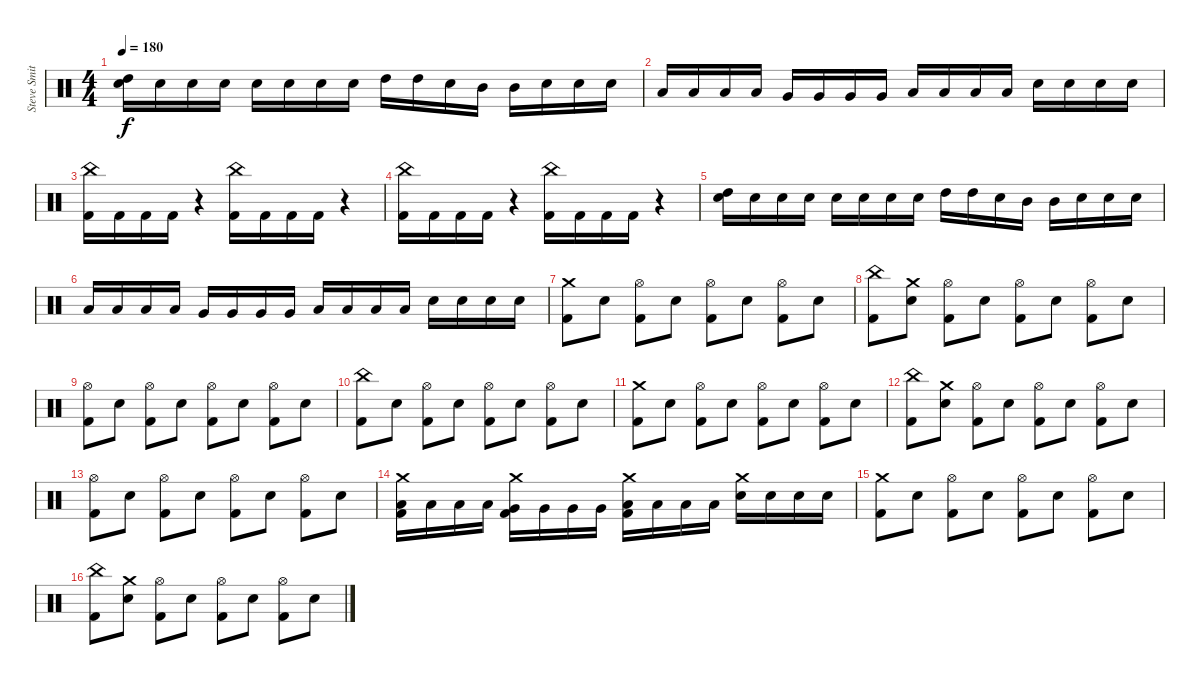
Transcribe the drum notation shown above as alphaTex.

\track ("Steve Smith" "Steve Smit") {instrument percussion}
\staff {score}
\articulation defaults
\ts (4 4)
\tempo 180
\clef neutral
\ks c
("High Tom (hit)" "Electric Snare (hit)").16{dy f} "Electric Snare (hit)".16 "Electric Snare (hit)".16 "Electric Snare (hit)".16 "Electric Snare (hit)".16 "Electric Snare (hit)".16 "Electric Snare (hit)".16 "Electric Snare (hit)".16 "High Tom (hit)".16 "High Tom (hit)".16 "Electric Snare (hit)".16 "Mid Tom (hit)".16 "Mid Tom (hit)".16 "Electric Snare (hit)".16 "Electric Snare (hit)".16 "Electric Snare (hit)".16 |
"Low Tom (hit)".16 "Low Tom (hit)".16 "Low Tom (hit)".16 "Low Tom (hit)".16 "Very Low Tom (hit)".16 "Very Low Tom (hit)".16 "Very Low Tom (hit)".16 "Very Low Tom (hit)".16 "Low Floor Tom (hit)".16 "Low Floor Tom (hit)".16 "Low Floor Tom (hit)".16 "Low Floor Tom (hit)".16 "Electric Snare (hit)".16 "Electric Snare (hit)".16 "Electric Snare (hit)".16 "Electric Snare (hit)".16 |
("China (hit)" "Kick (hit) 2").16 "Kick (hit) 2".16 "Kick (hit) 2".16 "Kick (hit) 2".16 r.4 ("China (hit)" "Kick (hit) 2").16 "Kick (hit) 2".16 "Kick (hit) 2".16 "Kick (hit) 2".16 r.4 |
("China (hit)" "Kick (hit) 2").16 "Kick (hit) 2".16 "Kick (hit) 2".16 "Kick (hit) 2".16 r.4 ("China (hit)" "Kick (hit) 2").16 "Kick (hit) 2".16 "Kick (hit) 2".16 "Kick (hit) 2".16 r.4 |
("High Tom (hit)" "Electric Snare (hit)").16 "Electric Snare (hit)".16 "Electric Snare (hit)".16 "Electric Snare (hit)".16 "Electric Snare (hit)".16 "Electric Snare (hit)".16 "Electric Snare (hit)".16 "Electric Snare (hit)".16 "High Tom (hit)".16 "High Tom (hit)".16 "Electric Snare (hit)".16 "Mid Tom (hit)".16 "Mid Tom (hit)".16 "Electric Snare (hit)".16 "Electric Snare (hit)".16 "Electric Snare (hit)".16 |
"Low Tom (hit)".16 "Low Tom (hit)".16 "Low Tom (hit)".16 "Low Tom (hit)".16 "Very Low Tom (hit)".16 "Very Low Tom (hit)".16 "Very Low Tom (hit)".16 "Very Low Tom (hit)".16 "Low Floor Tom (hit)".16 "Low Floor Tom (hit)".16 "Low Floor Tom (hit)".16 "Low Floor Tom (hit)".16 "Electric Snare (hit)".16 "Electric Snare (hit)".16 "Electric Snare (hit)".16 "Electric Snare (hit)".16 |
("Crash medium (hit)" "Kick (hit) 2").8 "Electric Snare (hit)".8 ("Hi-Hat (open)" "Kick (hit) 2").8 "Electric Snare (hit)".8 ("Hi-Hat (open)" "Kick (hit) 2").8 "Electric Snare (hit)".8 ("Hi-Hat (open)" "Kick (hit) 2").8 "Electric Snare (hit)".8 |
("China (hit)" "Kick (hit) 2").8 ("Crash medium (hit)" "Electric Snare (hit)").8 ("Hi-Hat (open)" "Kick (hit) 2").8 "Electric Snare (hit)".8 ("Hi-Hat (open)" "Kick (hit) 2").8 "Electric Snare (hit)".8 ("Hi-Hat (open)" "Kick (hit) 2").8 "Electric Snare (hit)".8 |
("Hi-Hat (open)" "Kick (hit) 2").8 "Electric Snare (hit)".8 ("Hi-Hat (open)" "Kick (hit) 2").8 "Electric Snare (hit)".8 ("Hi-Hat (open)" "Kick (hit) 2").8 "Electric Snare (hit)".8 ("Hi-Hat (open)" "Kick (hit) 2").8 "Electric Snare (hit)".8 |
("China (hit)" "Kick (hit) 2").8 "Electric Snare (hit)".8 ("Hi-Hat (open)" "Kick (hit) 2").8 "Electric Snare (hit)".8 ("Hi-Hat (open)" "Kick (hit) 2").8 "Electric Snare (hit)".8 ("Hi-Hat (open)" "Kick (hit) 2").8 "Electric Snare (hit)".8 |
("Crash medium (hit)" "Kick (hit) 2").8 "Electric Snare (hit)".8 ("Hi-Hat (open)" "Kick (hit) 2").8 "Electric Snare (hit)".8 ("Hi-Hat (open)" "Kick (hit) 2").8 "Electric Snare (hit)".8 ("Hi-Hat (open)" "Kick (hit) 2").8 "Electric Snare (hit)".8 |
("China (hit)" "Kick (hit) 2").8 ("Crash medium (hit)" "Electric Snare (hit)").8 ("Hi-Hat (open)" "Kick (hit) 2").8 "Electric Snare (hit)".8 ("Hi-Hat (open)" "Kick (hit) 2").8 "Electric Snare (hit)".8 ("Hi-Hat (open)" "Kick (hit) 2").8 "Electric Snare (hit)".8 |
("Hi-Hat (open)" "Kick (hit) 2").8 "Electric Snare (hit)".8 ("Hi-Hat (open)" "Kick (hit) 2").8 "Electric Snare (hit)".8 ("Hi-Hat (open)" "Kick (hit) 2").8 "Electric Snare (hit)".8 ("Hi-Hat (open)" "Kick (hit) 2").8 "Electric Snare (hit)".8 |
("Crash medium (hit)" "Low Tom (hit)" "Kick (hit) 2").16 "Low Tom (hit)".16 "Low Tom (hit)".16 "Low Tom (hit)".16 ("Crash medium (hit)" "Very Low Tom (hit)" "Kick (hit) 2").16 "Very Low Tom (hit)".16 "Very Low Tom (hit)".16 "Very Low Tom (hit)".16 ("Crash medium (hit)" "Low Floor Tom (hit)" "Kick (hit) 2").16 "Low Floor Tom (hit)".16 "Low Floor Tom (hit)".16 "Low Floor Tom (hit)".16 ("Crash medium (hit)" "Electric Snare (hit)").16 "Electric Snare (hit)".16 "Electric Snare (hit)".16 "Electric Snare (hit)".16 |
("Crash medium (hit)" "Kick (hit) 2").8 "Electric Snare (hit)".8 ("Hi-Hat (open)" "Kick (hit) 2").8 "Electric Snare (hit)".8 ("Hi-Hat (open)" "Kick (hit) 2").8 "Electric Snare (hit)".8 ("Hi-Hat (open)" "Kick (hit) 2").8 "Electric Snare (hit)".8 |
("China (hit)" "Kick (hit) 2").8 ("Crash medium (hit)" "Electric Snare (hit)").8 ("Hi-Hat (open)" "Kick (hit) 2").8 "Electric Snare (hit)".8 ("Hi-Hat (open)" "Kick (hit) 2").8 "Electric Snare (hit)".8 ("Hi-Hat (open)" "Kick (hit) 2").8 "Electric Snare (hit)".8
